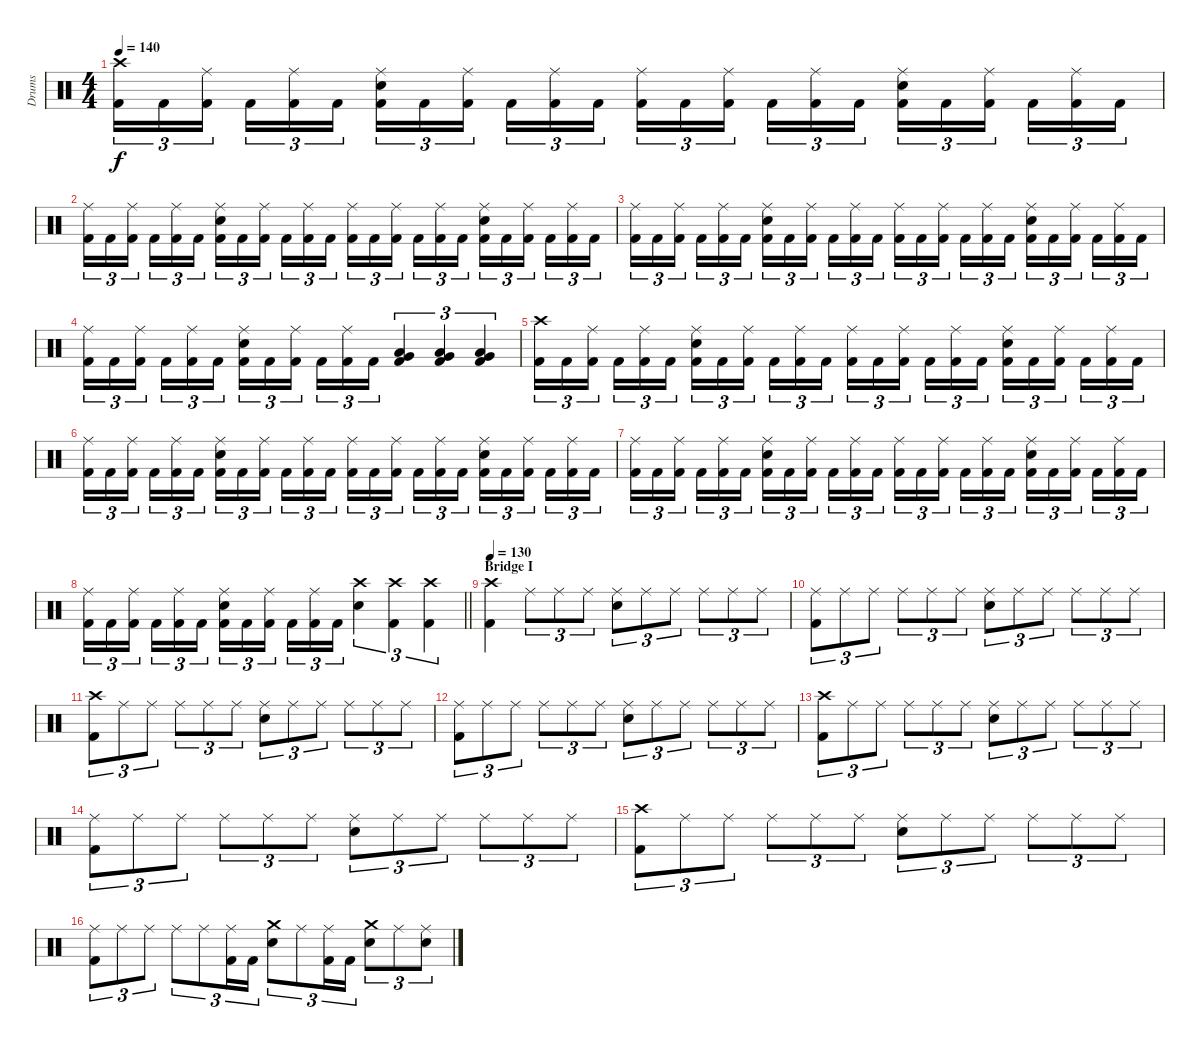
\track ("Drums" "Drums") {instrument percussion}
\staff {score}
\articulation defaults
\ts (4 4)
\tempo 140
\clef neutral
\ks c
("Crash high (hit)" "Kick (hit) 2").16{tu (3 2) dy f} "Kick (hit) 2".16{tu (3 2)} ("Ride (middle)" "Kick (hit) 2").16{tu (3 2)} "Kick (hit) 2".16{tu (3 2)} ("Ride (middle)" "Kick (hit) 2").16{tu (3 2)} "Kick (hit) 2".16{tu (3 2)} ("Ride (middle)" "Electric Snare (hit)" "Kick (hit) 2").16{tu (3 2)} "Kick (hit) 2".16{tu (3 2)} ("Ride (middle)" "Kick (hit) 2").16{tu (3 2)} "Kick (hit) 2".16{tu (3 2)} ("Ride (middle)" "Kick (hit) 2").16{tu (3 2)} "Kick (hit) 2".16{tu (3 2)} ("Ride (middle)" "Kick (hit) 2").16{tu (3 2)} "Kick (hit) 2".16{tu (3 2)} ("Ride (middle)" "Kick (hit) 2").16{tu (3 2)} "Kick (hit) 2".16{tu (3 2)} ("Ride (middle)" "Kick (hit) 2").16{tu (3 2)} "Kick (hit) 2".16{tu (3 2)} ("Ride (middle)" "Electric Snare (hit)" "Kick (hit) 2").16{tu (3 2)} "Kick (hit) 2".16{tu (3 2)} ("Ride (middle)" "Kick (hit) 2").16{tu (3 2)} "Kick (hit) 2".16{tu (3 2)} ("Ride (middle)" "Kick (hit) 2").16{tu (3 2)} "Kick (hit) 2".16{tu (3 2)} |
("Ride (middle)" "Kick (hit) 2").16{tu (3 2)} "Kick (hit) 2".16{tu (3 2)} ("Ride (middle)" "Kick (hit) 2").16{tu (3 2)} "Kick (hit) 2".16{tu (3 2)} ("Ride (middle)" "Kick (hit) 2").16{tu (3 2)} "Kick (hit) 2".16{tu (3 2)} ("Ride (middle)" "Electric Snare (hit)" "Kick (hit) 2").16{tu (3 2)} "Kick (hit) 2".16{tu (3 2)} ("Ride (middle)" "Kick (hit) 2").16{tu (3 2)} "Kick (hit) 2".16{tu (3 2)} ("Ride (middle)" "Kick (hit) 2").16{tu (3 2)} "Kick (hit) 2".16{tu (3 2)} ("Ride (middle)" "Kick (hit) 2").16{tu (3 2)} "Kick (hit) 2".16{tu (3 2)} ("Ride (middle)" "Kick (hit) 2").16{tu (3 2)} "Kick (hit) 2".16{tu (3 2)} ("Ride (middle)" "Kick (hit) 2").16{tu (3 2)} "Kick (hit) 2".16{tu (3 2)} ("Ride (middle)" "Electric Snare (hit)" "Kick (hit) 2").16{tu (3 2)} "Kick (hit) 2".16{tu (3 2)} ("Ride (middle)" "Kick (hit) 2").16{tu (3 2)} "Kick (hit) 2".16{tu (3 2)} ("Ride (middle)" "Kick (hit) 2").16{tu (3 2)} "Kick (hit) 2".16{tu (3 2)} |
("Ride (middle)" "Kick (hit) 2").16{tu (3 2)} "Kick (hit) 2".16{tu (3 2)} ("Ride (middle)" "Kick (hit) 2").16{tu (3 2)} "Kick (hit) 2".16{tu (3 2)} ("Ride (middle)" "Kick (hit) 2").16{tu (3 2)} "Kick (hit) 2".16{tu (3 2)} ("Ride (middle)" "Electric Snare (hit)" "Kick (hit) 2").16{tu (3 2)} "Kick (hit) 2".16{tu (3 2)} ("Ride (middle)" "Kick (hit) 2").16{tu (3 2)} "Kick (hit) 2".16{tu (3 2)} ("Ride (middle)" "Kick (hit) 2").16{tu (3 2)} "Kick (hit) 2".16{tu (3 2)} ("Ride (middle)" "Kick (hit) 2").16{tu (3 2)} "Kick (hit) 2".16{tu (3 2)} ("Ride (middle)" "Kick (hit) 2").16{tu (3 2)} "Kick (hit) 2".16{tu (3 2)} ("Ride (middle)" "Kick (hit) 2").16{tu (3 2)} "Kick (hit) 2".16{tu (3 2)} ("Ride (middle)" "Electric Snare (hit)" "Kick (hit) 2").16{tu (3 2)} "Kick (hit) 2".16{tu (3 2)} ("Ride (middle)" "Kick (hit) 2").16{tu (3 2)} "Kick (hit) 2".16{tu (3 2)} ("Ride (middle)" "Kick (hit) 2").16{tu (3 2)} "Kick (hit) 2".16{tu (3 2)} |
("Ride (middle)" "Kick (hit) 2").16{tu (3 2)} "Kick (hit) 2".16{tu (3 2)} ("Ride (middle)" "Kick (hit) 2").16{tu (3 2)} "Kick (hit) 2".16{tu (3 2)} ("Ride (middle)" "Kick (hit) 2").16{tu (3 2)} "Kick (hit) 2".16{tu (3 2)} ("Ride (middle)" "Electric Snare (hit)" "Kick (hit) 2").16{tu (3 2)} "Kick (hit) 2".16{tu (3 2)} ("Ride (middle)" "Kick (hit) 2").16{tu (3 2)} "Kick (hit) 2".16{tu (3 2)} ("Ride (middle)" "Kick (hit) 2").16{tu (3 2)} "Kick (hit) 2".16{tu (3 2)} ("Very Low Tom (hit)" "Low Floor Tom (hit)" "Kick (hit) 2").4{tu (3 2)} ("Very Low Tom (hit)" "Low Floor Tom (hit)" "Kick (hit) 2").4{tu (3 2)} ("Very Low Tom (hit)" "Low Floor Tom (hit)" "Kick (hit) 2").4{tu (3 2)} |
("Crash high (hit)" "Kick (hit) 2").16{tu (3 2)} "Kick (hit) 2".16{tu (3 2)} ("Ride (middle)" "Kick (hit) 2").16{tu (3 2)} "Kick (hit) 2".16{tu (3 2)} ("Ride (middle)" "Kick (hit) 2").16{tu (3 2)} "Kick (hit) 2".16{tu (3 2)} ("Ride (middle)" "Electric Snare (hit)" "Kick (hit) 2").16{tu (3 2)} "Kick (hit) 2".16{tu (3 2)} ("Ride (middle)" "Kick (hit) 2").16{tu (3 2)} "Kick (hit) 2".16{tu (3 2)} ("Ride (middle)" "Kick (hit) 2").16{tu (3 2)} "Kick (hit) 2".16{tu (3 2)} ("Ride (middle)" "Kick (hit) 2").16{tu (3 2)} "Kick (hit) 2".16{tu (3 2)} ("Ride (middle)" "Kick (hit) 2").16{tu (3 2)} "Kick (hit) 2".16{tu (3 2)} ("Ride (middle)" "Kick (hit) 2").16{tu (3 2)} "Kick (hit) 2".16{tu (3 2)} ("Ride (middle)" "Electric Snare (hit)" "Kick (hit) 2").16{tu (3 2)} "Kick (hit) 2".16{tu (3 2)} ("Ride (middle)" "Kick (hit) 2").16{tu (3 2)} "Kick (hit) 2".16{tu (3 2)} ("Ride (middle)" "Kick (hit) 2").16{tu (3 2)} "Kick (hit) 2".16{tu (3 2)} |
("Ride (middle)" "Kick (hit) 2").16{tu (3 2)} "Kick (hit) 2".16{tu (3 2)} ("Ride (middle)" "Kick (hit) 2").16{tu (3 2)} "Kick (hit) 2".16{tu (3 2)} ("Ride (middle)" "Kick (hit) 2").16{tu (3 2)} "Kick (hit) 2".16{tu (3 2)} ("Ride (middle)" "Electric Snare (hit)" "Kick (hit) 2").16{tu (3 2)} "Kick (hit) 2".16{tu (3 2)} ("Ride (middle)" "Kick (hit) 2").16{tu (3 2)} "Kick (hit) 2".16{tu (3 2)} ("Ride (middle)" "Kick (hit) 2").16{tu (3 2)} "Kick (hit) 2".16{tu (3 2)} ("Ride (middle)" "Kick (hit) 2").16{tu (3 2)} "Kick (hit) 2".16{tu (3 2)} ("Ride (middle)" "Kick (hit) 2").16{tu (3 2)} "Kick (hit) 2".16{tu (3 2)} ("Ride (middle)" "Kick (hit) 2").16{tu (3 2)} "Kick (hit) 2".16{tu (3 2)} ("Ride (middle)" "Electric Snare (hit)" "Kick (hit) 2").16{tu (3 2)} "Kick (hit) 2".16{tu (3 2)} ("Ride (middle)" "Kick (hit) 2").16{tu (3 2)} "Kick (hit) 2".16{tu (3 2)} ("Ride (middle)" "Kick (hit) 2").16{tu (3 2)} "Kick (hit) 2".16{tu (3 2)} |
("Ride (middle)" "Kick (hit) 2").16{tu (3 2)} "Kick (hit) 2".16{tu (3 2)} ("Ride (middle)" "Kick (hit) 2").16{tu (3 2)} "Kick (hit) 2".16{tu (3 2)} ("Ride (middle)" "Kick (hit) 2").16{tu (3 2)} "Kick (hit) 2".16{tu (3 2)} ("Ride (middle)" "Electric Snare (hit)" "Kick (hit) 2").16{tu (3 2)} "Kick (hit) 2".16{tu (3 2)} ("Ride (middle)" "Kick (hit) 2").16{tu (3 2)} "Kick (hit) 2".16{tu (3 2)} ("Ride (middle)" "Kick (hit) 2").16{tu (3 2)} "Kick (hit) 2".16{tu (3 2)} ("Ride (middle)" "Kick (hit) 2").16{tu (3 2)} "Kick (hit) 2".16{tu (3 2)} ("Ride (middle)" "Kick (hit) 2").16{tu (3 2)} "Kick (hit) 2".16{tu (3 2)} ("Ride (middle)" "Kick (hit) 2").16{tu (3 2)} "Kick (hit) 2".16{tu (3 2)} ("Ride (middle)" "Electric Snare (hit)" "Kick (hit) 2").16{tu (3 2)} "Kick (hit) 2".16{tu (3 2)} ("Ride (middle)" "Kick (hit) 2").16{tu (3 2)} "Kick (hit) 2".16{tu (3 2)} ("Ride (middle)" "Kick (hit) 2").16{tu (3 2)} "Kick (hit) 2".16{tu (3 2)} |
\barLineRight lightlight
("Ride (middle)" "Kick (hit) 2").16{tu (3 2)} "Kick (hit) 2".16{tu (3 2)} ("Ride (middle)" "Kick (hit) 2").16{tu (3 2)} "Kick (hit) 2".16{tu (3 2)} ("Ride (middle)" "Kick (hit) 2").16{tu (3 2)} "Kick (hit) 2".16{tu (3 2)} ("Ride (middle)" "Electric Snare (hit)" "Kick (hit) 2").16{tu (3 2)} "Kick (hit) 2".16{tu (3 2)} ("Ride (middle)" "Kick (hit) 2").16{tu (3 2)} "Kick (hit) 2".16{tu (3 2)} ("Ride (middle)" "Kick (hit) 2").16{tu (3 2)} "Kick (hit) 2".16{tu (3 2)} ("Crash high (hit)" "Electric Snare (hit)").4{tu (3 2)} ("Crash high (hit)" "Kick (hit) 2").4{tu (3 2)} ("Crash high (hit)" "Kick (hit) 2").4{tu (3 2)} |
\section ("" "Bridge I")
\tempo 130
("Crash high (hit)" "Kick (hit) 2").4 "Ride (middle)".8{tu (3 2)} "Ride (middle)".8{tu (3 2)} "Ride (middle)".8{tu (3 2)} ("Ride (middle)" "Electric Snare (hit)").8{tu (3 2)} "Ride (middle)".8{tu (3 2)} "Ride (middle)".8{tu (3 2)} "Ride (middle)".8{tu (3 2)} "Ride (middle)".8{tu (3 2)} "Ride (middle)".8{tu (3 2)} |
("Ride (middle)" "Kick (hit) 2").8{tu (3 2)} "Ride (middle)".8{tu (3 2)} "Ride (middle)".8{tu (3 2)} "Ride (middle)".8{tu (3 2)} "Ride (middle)".8{tu (3 2)} "Ride (middle)".8{tu (3 2)} ("Ride (middle)" "Electric Snare (hit)").8{tu (3 2)} "Ride (middle)".8{tu (3 2)} "Ride (middle)".8{tu (3 2)} "Ride (middle)".8{tu (3 2)} "Ride (middle)".8{tu (3 2)} "Ride (middle)".8{tu (3 2)} |
("Crash high (hit)" "Kick (hit) 2").8{tu (3 2)} "Ride (middle)".8{tu (3 2)} "Ride (middle)".8{tu (3 2)} "Ride (middle)".8{tu (3 2)} "Ride (middle)".8{tu (3 2)} "Ride (middle)".8{tu (3 2)} ("Ride (middle)" "Electric Snare (hit)").8{tu (3 2)} "Ride (middle)".8{tu (3 2)} "Ride (middle)".8{tu (3 2)} "Ride (middle)".8{tu (3 2)} "Ride (middle)".8{tu (3 2)} "Ride (middle)".8{tu (3 2)} |
("Ride (middle)" "Kick (hit) 2").8{tu (3 2)} "Ride (middle)".8{tu (3 2)} "Ride (middle)".8{tu (3 2)} "Ride (middle)".8{tu (3 2)} "Ride (middle)".8{tu (3 2)} "Ride (middle)".8{tu (3 2)} ("Ride (middle)" "Electric Snare (hit)").8{tu (3 2)} "Ride (middle)".8{tu (3 2)} "Ride (middle)".8{tu (3 2)} "Ride (middle)".8{tu (3 2)} "Ride (middle)".8{tu (3 2)} "Ride (middle)".8{tu (3 2)} |
("Crash high (hit)" "Kick (hit) 2").8{tu (3 2)} "Ride (middle)".8{tu (3 2)} "Ride (middle)".8{tu (3 2)} "Ride (middle)".8{tu (3 2)} "Ride (middle)".8{tu (3 2)} "Ride (middle)".8{tu (3 2)} ("Ride (middle)" "Electric Snare (hit)").8{tu (3 2)} "Ride (middle)".8{tu (3 2)} "Ride (middle)".8{tu (3 2)} "Ride (middle)".8{tu (3 2)} "Ride (middle)".8{tu (3 2)} "Ride (middle)".8{tu (3 2)} |
("Ride (middle)" "Kick (hit) 2").8{tu (3 2)} "Ride (middle)".8{tu (3 2)} "Ride (middle)".8{tu (3 2)} "Ride (middle)".8{tu (3 2)} "Ride (middle)".8{tu (3 2)} "Ride (middle)".8{tu (3 2)} ("Ride (middle)" "Electric Snare (hit)").8{tu (3 2)} "Ride (middle)".8{tu (3 2)} "Ride (middle)".8{tu (3 2)} "Ride (middle)".8{tu (3 2)} "Ride (middle)".8{tu (3 2)} "Ride (middle)".8{tu (3 2)} |
("Crash high (hit)" "Kick (hit) 2").8{tu (3 2)} "Ride (middle)".8{tu (3 2)} "Ride (middle)".8{tu (3 2)} "Ride (middle)".8{tu (3 2)} "Ride (middle)".8{tu (3 2)} "Ride (middle)".8{tu (3 2)} ("Ride (middle)" "Electric Snare (hit)").8{tu (3 2)} "Ride (middle)".8{tu (3 2)} "Ride (middle)".8{tu (3 2)} "Ride (middle)".8{tu (3 2)} "Ride (middle)".8{tu (3 2)} "Ride (middle)".8{tu (3 2)} |
("Ride (middle)" "Kick (hit) 2").8{tu (3 2)} "Ride (middle)".8{tu (3 2)} "Ride (middle)".8{tu (3 2)} "Ride (middle)".8{tu (3 2)} "Ride (middle)".8{tu (3 2)} ("Ride (middle)" "Kick (hit) 2").16{tu (3 2)} "Kick (hit) 2".16{tu (3 2)} ("Crash medium (hit)" "Electric Snare (hit)").8{tu (3 2)} "Ride (middle)".8{tu (3 2)} ("Ride (middle)" "Kick (hit) 2").16{tu (3 2)} "Kick (hit) 2".16{tu (3 2)} ("Crash medium (hit)" "Electric Snare (hit)").8{tu (3 2)} "Ride (middle)".8{tu (3 2)} ("Ride (middle)" "Electric Snare (hit)").8{tu (3 2)}
